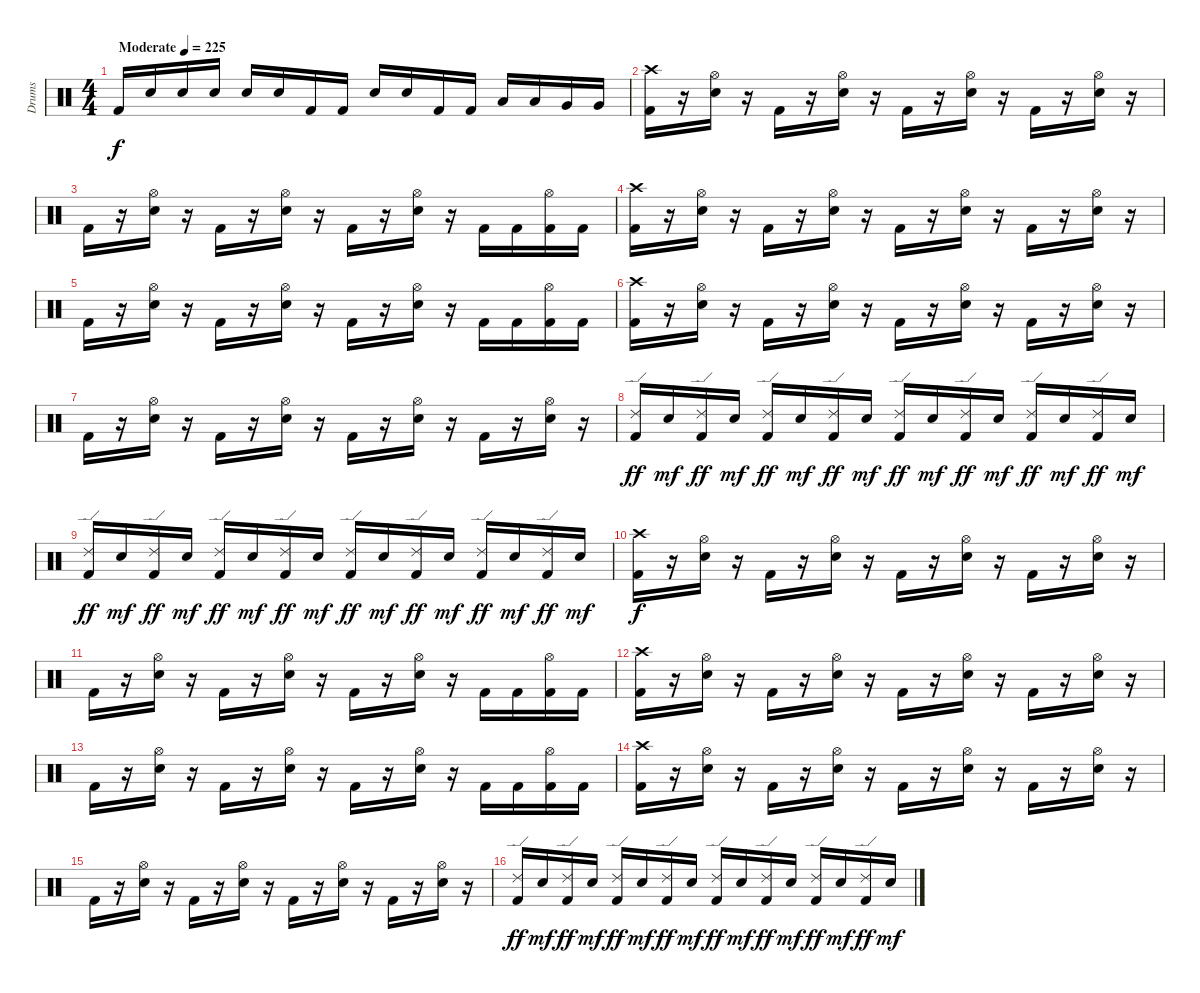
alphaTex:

\track ("Drums" "Drums") {instrument percussion}
\staff {score}
\articulation defaults
\ts (4 4)
\tempo (225 "Moderate")
\clef neutral
\ks c "Kick (hit) 2".16{dy f} "Electric Snare (hit)".16 "Electric Snare (hit)".16 "Electric Snare (hit)".16 "Electric Snare (hit)".16 "Electric Snare (hit)".16 "Kick (hit) 2".16 "Kick (hit) 2".16 "Electric Snare (hit)".16 "Electric Snare (hit)".16 "Kick (hit) 2".16 "Kick (hit) 2".16 "Low Tom (hit)".16 "Low Tom (hit)".16 "Very Low Tom (hit)".16 "Very Low Tom (hit)".16
|
("Crash high (hit)" "Kick (hit) 2").16 r.16 ("Hi-Hat (open)" "Electric Snare (hit)").16 r.16 "Kick (hit) 2".16 r.16 ("Hi-Hat (open)" "Electric Snare (hit)").16 r.16 "Kick (hit) 2".16 r.16 ("Hi-Hat (open)" "Electric Snare (hit)").16 r.16 "Kick (hit) 2".16 r.16 ("Hi-Hat (open)" "Electric Snare (hit)").16 r.16 |
"Kick (hit) 2".16 r.16 ("Hi-Hat (open)" "Electric Snare (hit)").16 r.16 "Kick (hit) 2".16 r.16 ("Hi-Hat (open)" "Electric Snare (hit)").16 r.16 "Kick (hit) 2".16 r.16 ("Hi-Hat (open)" "Electric Snare (hit)").16 r.16 "Kick (hit) 2".16 "Kick (hit) 2".16 ("Hi-Hat (open)" "Kick (hit) 2").16 "Kick (hit) 2".16 |
("Crash high (hit)" "Kick (hit) 2").16 r.16 ("Hi-Hat (open)" "Electric Snare (hit)").16 r.16 "Kick (hit) 2".16 r.16 ("Hi-Hat (open)" "Electric Snare (hit)").16 r.16 "Kick (hit) 2".16 r.16 ("Hi-Hat (open)" "Electric Snare (hit)").16 r.16 "Kick (hit) 2".16 r.16 ("Hi-Hat (open)" "Electric Snare (hit)").16 r.16 |
"Kick (hit) 2".16 r.16 ("Hi-Hat (open)" "Electric Snare (hit)").16 r.16 "Kick (hit) 2".16 r.16 ("Hi-Hat (open)" "Electric Snare (hit)").16 r.16 "Kick (hit) 2".16 r.16 ("Hi-Hat (open)" "Electric Snare (hit)").16 r.16 "Kick (hit) 2".16 "Kick (hit) 2".16 ("Hi-Hat (open)" "Kick (hit) 2").16 "Kick (hit) 2".16 |
("Crash high (hit)" "Kick (hit) 2").16 r.16 ("Hi-Hat (open)" "Electric Snare (hit)").16 r.16 "Kick (hit) 2".16 r.16 ("Hi-Hat (open)" "Electric Snare (hit)").16 r.16 "Kick (hit) 2".16 r.16 ("Hi-Hat (open)" "Electric Snare (hit)").16 r.16 "Kick (hit) 2".16 r.16 ("Hi-Hat (open)" "Electric Snare (hit)").16 r.16 |
"Kick (hit) 2".16 r.16 ("Hi-Hat (open)" "Electric Snare (hit)").16 r.16 "Kick (hit) 2".16 r.16 ("Hi-Hat (open)" "Electric Snare (hit)").16 r.16 "Kick (hit) 2".16 r.16 ("Hi-Hat (open)" "Electric Snare (hit)").16 r.16 "Kick (hit) 2".16 r.16 ("Hi-Hat (open)" "Electric Snare (hit)").16 r.16 |
("Ride (edge) 2" "Kick (hit) 2").16{dy ff} "Electric Snare (hit)".16{dy mf} ("Ride (edge) 2" "Kick (hit) 2").16{dy ff} "Electric Snare (hit)".16{dy mf} ("Ride (edge) 2" "Kick (hit) 2").16{dy ff} "Electric Snare (hit)".16{dy mf} ("Ride (edge) 2" "Kick (hit) 2").16{dy ff} "Electric Snare (hit)".16{dy mf} ("Ride (edge) 2" "Kick (hit) 2").16{dy ff} "Electric Snare (hit)".16{dy mf} ("Ride (edge) 2" "Kick (hit) 2").16{dy ff} "Electric Snare (hit)".16{dy mf} ("Ride (edge) 2" "Kick (hit) 2").16{dy ff} "Electric Snare (hit)".16{dy mf} ("Ride (edge) 2" "Kick (hit) 2").16{dy ff} "Electric Snare (hit)".16{dy mf} |
("Ride (edge) 2" "Kick (hit) 2").16{dy ff} "Electric Snare (hit)".16{dy mf} ("Ride (edge) 2" "Kick (hit) 2").16{dy ff} "Electric Snare (hit)".16{dy mf} ("Ride (edge) 2" "Kick (hit) 2").16{dy ff} "Electric Snare (hit)".16{dy mf} ("Ride (edge) 2" "Kick (hit) 2").16{dy ff} "Electric Snare (hit)".16{dy mf} ("Ride (edge) 2" "Kick (hit) 2").16{dy ff} "Electric Snare (hit)".16{dy mf} ("Ride (edge) 2" "Kick (hit) 2").16{dy ff} "Electric Snare (hit)".16{dy mf} ("Ride (edge) 2" "Kick (hit) 2").16{dy ff} "Electric Snare (hit)".16{dy mf} ("Ride (edge) 2" "Kick (hit) 2").16{dy ff} "Electric Snare (hit)".16{dy mf} |
("Crash high (hit)" "Kick (hit) 2").16{dy f} r.16 ("Hi-Hat (open)" "Electric Snare (hit)").16 r.16 "Kick (hit) 2".16 r.16 ("Hi-Hat (open)" "Electric Snare (hit)").16 r.16 "Kick (hit) 2".16 r.16 ("Hi-Hat (open)" "Electric Snare (hit)").16 r.16 "Kick (hit) 2".16 r.16 ("Hi-Hat (open)" "Electric Snare (hit)").16 r.16 |
"Kick (hit) 2".16 r.16 ("Hi-Hat (open)" "Electric Snare (hit)").16 r.16 "Kick (hit) 2".16 r.16 ("Hi-Hat (open)" "Electric Snare (hit)").16 r.16 "Kick (hit) 2".16 r.16 ("Hi-Hat (open)" "Electric Snare (hit)").16 r.16 "Kick (hit) 2".16 "Kick (hit) 2".16 ("Hi-Hat (open)" "Kick (hit) 2").16 "Kick (hit) 2".16 |
("Crash high (hit)" "Kick (hit) 2").16 r.16 ("Hi-Hat (open)" "Electric Snare (hit)").16 r.16 "Kick (hit) 2".16 r.16 ("Hi-Hat (open)" "Electric Snare (hit)").16 r.16 "Kick (hit) 2".16 r.16 ("Hi-Hat (open)" "Electric Snare (hit)").16 r.16 "Kick (hit) 2".16 r.16 ("Hi-Hat (open)" "Electric Snare (hit)").16 r.16 |
"Kick (hit) 2".16 r.16 ("Hi-Hat (open)" "Electric Snare (hit)").16 r.16 "Kick (hit) 2".16 r.16 ("Hi-Hat (open)" "Electric Snare (hit)").16 r.16 "Kick (hit) 2".16 r.16 ("Hi-Hat (open)" "Electric Snare (hit)").16 r.16 "Kick (hit) 2".16 "Kick (hit) 2".16 ("Hi-Hat (open)" "Kick (hit) 2").16 "Kick (hit) 2".16 |
("Crash high (hit)" "Kick (hit) 2").16 r.16 ("Hi-Hat (open)" "Electric Snare (hit)").16 r.16 "Kick (hit) 2".16 r.16 ("Hi-Hat (open)" "Electric Snare (hit)").16 r.16 "Kick (hit) 2".16 r.16 ("Hi-Hat (open)" "Electric Snare (hit)").16 r.16 "Kick (hit) 2".16 r.16 ("Hi-Hat (open)" "Electric Snare (hit)").16 r.16 |
"Kick (hit) 2".16 r.16 ("Hi-Hat (open)" "Electric Snare (hit)").16 r.16 "Kick (hit) 2".16 r.16 ("Hi-Hat (open)" "Electric Snare (hit)").16 r.16 "Kick (hit) 2".16 r.16 ("Hi-Hat (open)" "Electric Snare (hit)").16 r.16 "Kick (hit) 2".16 r.16 ("Hi-Hat (open)" "Electric Snare (hit)").16 r.16 |
("Ride (edge) 2" "Kick (hit) 2").16{dy ff} "Electric Snare (hit)".16{dy mf} ("Ride (edge) 2" "Kick (hit) 2").16{dy ff} "Electric Snare (hit)".16{dy mf} ("Ride (edge) 2" "Kick (hit) 2").16{dy ff} "Electric Snare (hit)".16{dy mf} ("Ride (edge) 2" "Kick (hit) 2").16{dy ff} "Electric Snare (hit)".16{dy mf} ("Ride (edge) 2" "Kick (hit) 2").16{dy ff} "Electric Snare (hit)".16{dy mf} ("Ride (edge) 2" "Kick (hit) 2").16{dy ff} "Electric Snare (hit)".16{dy mf} ("Ride (edge) 2" "Kick (hit) 2").16{dy ff} "Electric Snare (hit)".16{dy mf} ("Ride (edge) 2" "Kick (hit) 2").16{dy ff} "Electric Snare (hit)".16{dy mf}
